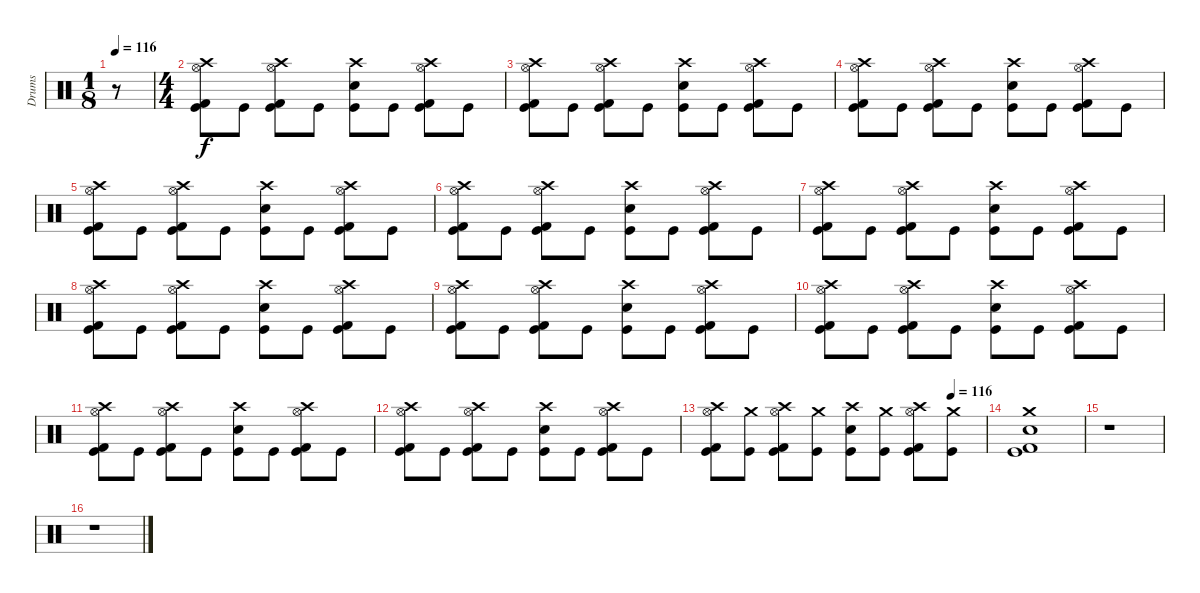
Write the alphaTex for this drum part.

\track ("Drums" "Drums") {instrument percussion}
\staff {score}
\articulation defaults
\ts (1 8)
\tempo 116
\tempo 100
\tempo 116
\clef neutral
\ks c
r.8{dy f volume 0} |
\ts (4 4)
("Crash high (hit)" "Hi-Hat (open)" "Kick (hit) 2" "Kick (hit)").8{volume 3} "Kick (hit)".8 ("Crash high (hit)" "Hi-Hat (open)" "Kick (hit) 2" "Kick (hit)").8 "Kick (hit)".8 ("Crash high (hit)" "Snare (hit) 2" "Kick (hit)").8 "Kick (hit)".8 ("Crash high (hit)" "Hi-Hat (open)" "Kick (hit) 2" "Kick (hit)").8 "Kick (hit)".8 |
("Crash high (hit)" "Hi-Hat (open)" "Kick (hit) 2" "Kick (hit)").8 "Kick (hit)".8 ("Crash high (hit)" "Hi-Hat (open)" "Kick (hit) 2" "Kick (hit)").8 "Kick (hit)".8 ("Crash high (hit)" "Snare (hit) 2" "Kick (hit)").8 "Kick (hit)".8 ("Crash high (hit)" "Hi-Hat (open)" "Kick (hit) 2" "Kick (hit)").8 "Kick (hit)".8 |
("Crash high (hit)" "Hi-Hat (open)" "Kick (hit) 2" "Kick (hit)").8{volume 6} "Kick (hit)".8 ("Crash high (hit)" "Hi-Hat (open)" "Kick (hit) 2" "Kick (hit)").8 "Kick (hit)".8 ("Crash high (hit)" "Snare (hit) 2" "Kick (hit)").8 "Kick (hit)".8 ("Crash high (hit)" "Hi-Hat (open)" "Kick (hit) 2" "Kick (hit)").8 "Kick (hit)".8 |
("Crash high (hit)" "Hi-Hat (open)" "Kick (hit) 2" "Kick (hit)").8 "Kick (hit)".8 ("Crash high (hit)" "Hi-Hat (open)" "Kick (hit) 2" "Kick (hit)").8 "Kick (hit)".8 ("Crash high (hit)" "Snare (hit) 2" "Kick (hit)").8 "Kick (hit)".8 ("Crash high (hit)" "Hi-Hat (open)" "Kick (hit) 2" "Kick (hit)").8 "Kick (hit)".8 |
("Crash high (hit)" "Hi-Hat (open)" "Kick (hit) 2" "Kick (hit)").8{volume 9} "Kick (hit)".8 ("Crash high (hit)" "Hi-Hat (open)" "Kick (hit) 2" "Kick (hit)").8 "Kick (hit)".8 ("Crash high (hit)" "Snare (hit) 2" "Kick (hit)").8 "Kick (hit)".8 ("Crash high (hit)" "Hi-Hat (open)" "Kick (hit) 2" "Kick (hit)").8 "Kick (hit)".8 |
("Crash high (hit)" "Hi-Hat (open)" "Kick (hit) 2" "Kick (hit)").8 "Kick (hit)".8 ("Crash high (hit)" "Hi-Hat (open)" "Kick (hit) 2" "Kick (hit)").8 "Kick (hit)".8 ("Crash high (hit)" "Snare (hit) 2" "Kick (hit)").8 "Kick (hit)".8 ("Crash high (hit)" "Hi-Hat (open)" "Kick (hit) 2" "Kick (hit)").8 "Kick (hit)".8 |
("Crash high (hit)" "Hi-Hat (open)" "Kick (hit) 2" "Kick (hit)").8{volume 13} "Kick (hit)".8 ("Crash high (hit)" "Hi-Hat (open)" "Kick (hit) 2" "Kick (hit)").8 "Kick (hit)".8 ("Crash high (hit)" "Snare (hit) 2" "Kick (hit)").8 "Kick (hit)".8 ("Crash high (hit)" "Hi-Hat (open)" "Kick (hit) 2" "Kick (hit)").8 "Kick (hit)".8 |
("Crash high (hit)" "Hi-Hat (open)" "Kick (hit) 2" "Kick (hit)").8{volume 15} "Kick (hit)".8 ("Crash high (hit)" "Hi-Hat (open)" "Kick (hit) 2" "Kick (hit)").8 "Kick (hit)".8 ("Crash high (hit)" "Snare (hit) 2" "Kick (hit)").8 "Kick (hit)".8 ("Crash high (hit)" "Hi-Hat (open)" "Kick (hit) 2" "Kick (hit)").8 "Kick (hit)".8 |
("Crash high (hit)" "Hi-Hat (open)" "Kick (hit) 2" "Kick (hit)").8 "Kick (hit)".8 ("Crash high (hit)" "Hi-Hat (open)" "Kick (hit) 2" "Kick (hit)").8 "Kick (hit)".8 ("Crash high (hit)" "Snare (hit) 2" "Kick (hit)").8 "Kick (hit)".8 ("Crash high (hit)" "Hi-Hat (open)" "Kick (hit) 2" "Kick (hit)").8 "Kick (hit)".8 |
("Crash high (hit)" "Hi-Hat (open)" "Kick (hit) 2" "Kick (hit)").8 "Kick (hit)".8 ("Crash high (hit)" "Hi-Hat (open)" "Kick (hit) 2" "Kick (hit)").8 "Kick (hit)".8 ("Crash high (hit)" "Snare (hit) 2" "Kick (hit)").8 "Kick (hit)".8 ("Crash high (hit)" "Hi-Hat (open)" "Kick (hit) 2" "Kick (hit)").8 "Kick (hit)".8 |
("Crash high (hit)" "Hi-Hat (open)" "Kick (hit) 2" "Kick (hit)").8 "Kick (hit)".8 ("Crash high (hit)" "Hi-Hat (open)" "Kick (hit) 2" "Kick (hit)").8 "Kick (hit)".8 ("Crash high (hit)" "Snare (hit) 2" "Kick (hit)").8 "Kick (hit)".8 ("Crash high (hit)" "Hi-Hat (open)" "Kick (hit) 2" "Kick (hit)").8 "Kick (hit)".8 |
\tempo (116 0.875)
("Crash high (hit)" "Hi-Hat (open)" "Kick (hit) 2" "Kick (hit)").8 ("Crash medium (hit)" "Kick (hit)").8 ("Crash high (hit)" "Hi-Hat (open)" "Kick (hit) 2" "Kick (hit)").8 ("Crash medium (hit)" "Kick (hit)").8 ("Crash high (hit)" "Snare (hit) 2" "Kick (hit)").8 ("Crash medium (hit)" "Kick (hit)").8 ("Crash high (hit)" "Hi-Hat (open)" "Kick (hit) 2" "Kick (hit)").8 ("Crash medium (hit)" "Kick (hit)").8 |
("Crash medium (hit)" "Snare (hit) 2" "Kick (hit)" "Kick (hit) 2").1 |
r.1 |
r.1
